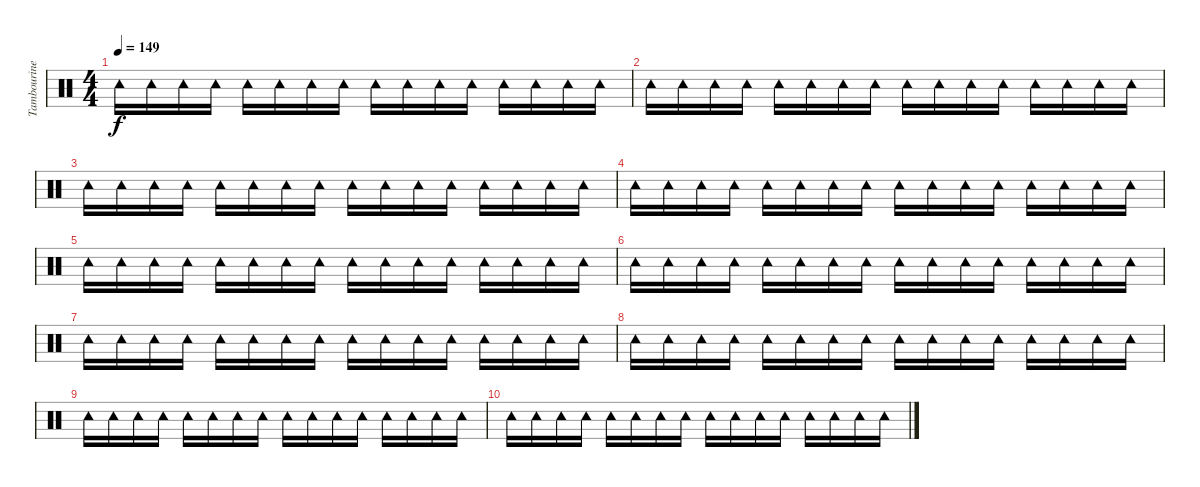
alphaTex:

\track ("Tambourine" "Tambourine") {instrument percussion}
\staff {score}
\articulation defaults
\ts (4 4)
\tempo 149
\clef neutral
\ks c "Tambourine (hit)".16{dy f} "Tambourine (hit)".16 "Tambourine (hit)".16 "Tambourine (hit)".16 "Tambourine (hit)".16 "Tambourine (hit)".16 "Tambourine (hit)".16 "Tambourine (hit)".16 "Tambourine (hit)".16 "Tambourine (hit)".16 "Tambourine (hit)".16 "Tambourine (hit)".16 "Tambourine (hit)".16 "Tambourine (hit)".16 "Tambourine (hit)".16 "Tambourine (hit)".16
|
"Tambourine (hit)".16 "Tambourine (hit)".16 "Tambourine (hit)".16 "Tambourine (hit)".16 "Tambourine (hit)".16 "Tambourine (hit)".16 "Tambourine (hit)".16 "Tambourine (hit)".16 "Tambourine (hit)".16 "Tambourine (hit)".16 "Tambourine (hit)".16 "Tambourine (hit)".16 "Tambourine (hit)".16 "Tambourine (hit)".16 "Tambourine (hit)".16 "Tambourine (hit)".16 |
"Tambourine (hit)".16 "Tambourine (hit)".16 "Tambourine (hit)".16 "Tambourine (hit)".16 "Tambourine (hit)".16 "Tambourine (hit)".16 "Tambourine (hit)".16 "Tambourine (hit)".16 "Tambourine (hit)".16 "Tambourine (hit)".16 "Tambourine (hit)".16 "Tambourine (hit)".16 "Tambourine (hit)".16 "Tambourine (hit)".16 "Tambourine (hit)".16 "Tambourine (hit)".16 |
"Tambourine (hit)".16 "Tambourine (hit)".16 "Tambourine (hit)".16 "Tambourine (hit)".16 "Tambourine (hit)".16 "Tambourine (hit)".16 "Tambourine (hit)".16 "Tambourine (hit)".16 "Tambourine (hit)".16 "Tambourine (hit)".16 "Tambourine (hit)".16 "Tambourine (hit)".16 "Tambourine (hit)".16 "Tambourine (hit)".16 "Tambourine (hit)".16 "Tambourine (hit)".16 |
"Tambourine (hit)".16 "Tambourine (hit)".16 "Tambourine (hit)".16 "Tambourine (hit)".16 "Tambourine (hit)".16 "Tambourine (hit)".16 "Tambourine (hit)".16 "Tambourine (hit)".16 "Tambourine (hit)".16 "Tambourine (hit)".16 "Tambourine (hit)".16 "Tambourine (hit)".16 "Tambourine (hit)".16 "Tambourine (hit)".16 "Tambourine (hit)".16 "Tambourine (hit)".16 |
"Tambourine (hit)".16 "Tambourine (hit)".16 "Tambourine (hit)".16 "Tambourine (hit)".16 "Tambourine (hit)".16 "Tambourine (hit)".16 "Tambourine (hit)".16 "Tambourine (hit)".16 "Tambourine (hit)".16 "Tambourine (hit)".16 "Tambourine (hit)".16 "Tambourine (hit)".16 "Tambourine (hit)".16 "Tambourine (hit)".16 "Tambourine (hit)".16 "Tambourine (hit)".16 |
"Tambourine (hit)".16 "Tambourine (hit)".16 "Tambourine (hit)".16 "Tambourine (hit)".16 "Tambourine (hit)".16 "Tambourine (hit)".16 "Tambourine (hit)".16 "Tambourine (hit)".16 "Tambourine (hit)".16 "Tambourine (hit)".16 "Tambourine (hit)".16 "Tambourine (hit)".16 "Tambourine (hit)".16 "Tambourine (hit)".16 "Tambourine (hit)".16 "Tambourine (hit)".16 |
"Tambourine (hit)".16 "Tambourine (hit)".16 "Tambourine (hit)".16 "Tambourine (hit)".16 "Tambourine (hit)".16 "Tambourine (hit)".16 "Tambourine (hit)".16 "Tambourine (hit)".16 "Tambourine (hit)".16 "Tambourine (hit)".16 "Tambourine (hit)".16 "Tambourine (hit)".16 "Tambourine (hit)".16 "Tambourine (hit)".16 "Tambourine (hit)".16 "Tambourine (hit)".16 |
"Tambourine (hit)".16 "Tambourine (hit)".16 "Tambourine (hit)".16 "Tambourine (hit)".16 "Tambourine (hit)".16 "Tambourine (hit)".16 "Tambourine (hit)".16 "Tambourine (hit)".16 "Tambourine (hit)".16 "Tambourine (hit)".16 "Tambourine (hit)".16 "Tambourine (hit)".16 "Tambourine (hit)".16 "Tambourine (hit)".16 "Tambourine (hit)".16 "Tambourine (hit)".16 |
"Tambourine (hit)".16 "Tambourine (hit)".16 "Tambourine (hit)".16 "Tambourine (hit)".16 "Tambourine (hit)".16 "Tambourine (hit)".16 "Tambourine (hit)".16 "Tambourine (hit)".16 "Tambourine (hit)".16 "Tambourine (hit)".16 "Tambourine (hit)".16 "Tambourine (hit)".16 "Tambourine (hit)".16 "Tambourine (hit)".16 "Tambourine (hit)".16 "Tambourine (hit)".16
